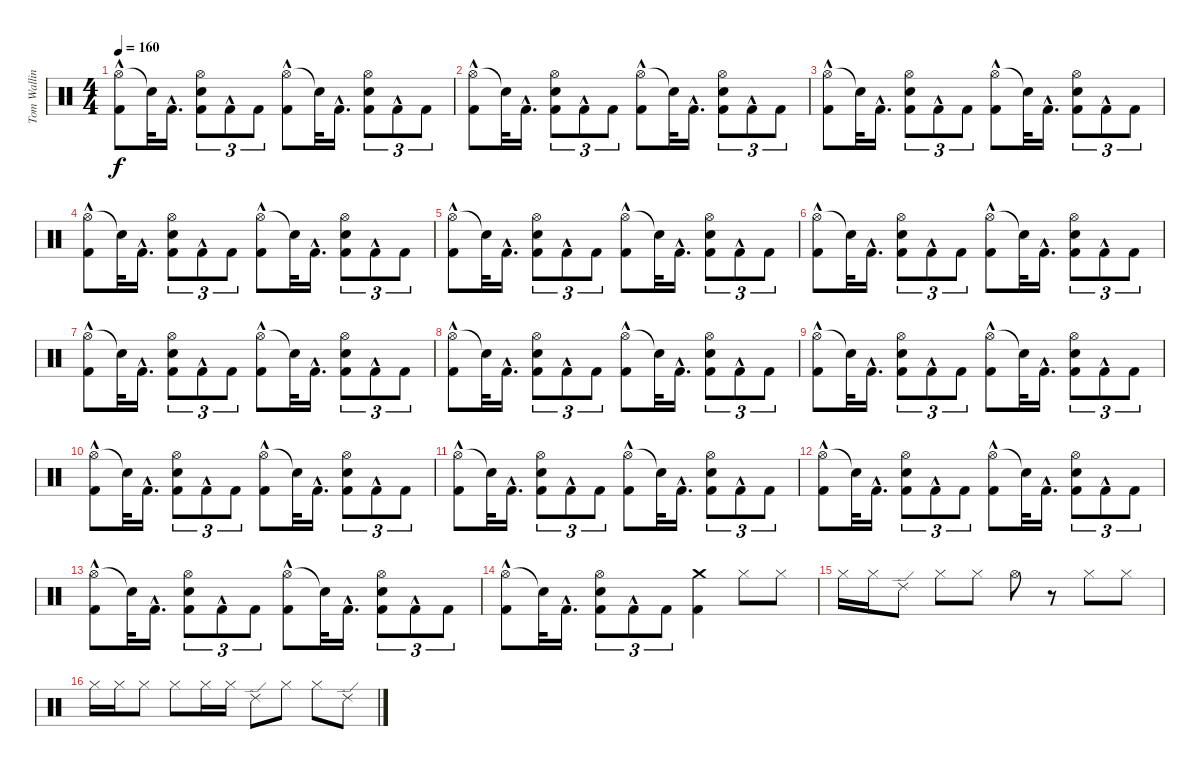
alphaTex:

\track ("Tom Walling (Drums)" "Tom Wallin") {instrument percussion}
\staff {score}
\articulation defaults
\ts (4 4)
\tempo 160
\clef neutral
\ks c
("Hi-Hat (open)" "Kick (hit) 2"{hac}).8{dy f} "Snare (hit)"{t}.32 "Kick (hit) 2"{hac}.16{d} ("Hi-Hat (open)" "Electric Snare (hit)" "Kick (hit) 2").8{tu (3 2)} "Kick (hit) 2"{hac}.8{tu (3 2)} "Kick (hit) 2".8{tu (3 2)} ("Hi-Hat (open)" "Kick (hit) 2"{hac}).8 "Snare (hit)"{t}.32 "Kick (hit) 2"{hac}.16{d} ("Hi-Hat (open)" "Electric Snare (hit)" "Kick (hit) 2").8{tu (3 2)} "Kick (hit) 2"{hac}.8{tu (3 2)} "Kick (hit) 2".8{tu (3 2)} |
("Hi-Hat (open)" "Kick (hit) 2"{hac}).8 "Snare (hit)"{t}.32 "Kick (hit) 2"{hac}.16{d} ("Hi-Hat (open)" "Electric Snare (hit)" "Kick (hit) 2").8{tu (3 2)} "Kick (hit) 2"{hac}.8{tu (3 2)} "Kick (hit) 2".8{tu (3 2)} ("Hi-Hat (open)" "Kick (hit) 2"{hac}).8 "Snare (hit)"{t}.32 "Kick (hit) 2"{hac}.16{d} ("Hi-Hat (open)" "Electric Snare (hit)" "Kick (hit) 2").8{tu (3 2)} "Kick (hit) 2"{hac}.8{tu (3 2)} "Kick (hit) 2".8{tu (3 2)} |
("Hi-Hat (open)" "Kick (hit) 2"{hac}).8 "Snare (hit)"{t}.32 "Kick (hit) 2"{hac}.16{d} ("Hi-Hat (open)" "Electric Snare (hit)" "Kick (hit) 2").8{tu (3 2)} "Kick (hit) 2"{hac}.8{tu (3 2)} "Kick (hit) 2".8{tu (3 2)} ("Hi-Hat (open)" "Kick (hit) 2"{hac}).8 "Snare (hit)"{t}.32 "Kick (hit) 2"{hac}.16{d} ("Hi-Hat (open)" "Electric Snare (hit)" "Kick (hit) 2").8{tu (3 2)} "Kick (hit) 2"{hac}.8{tu (3 2)} "Kick (hit) 2".8{tu (3 2)} |
("Hi-Hat (open)" "Kick (hit) 2"{hac}).8 "Snare (hit)"{t}.32 "Kick (hit) 2"{hac}.16{d} ("Hi-Hat (open)" "Electric Snare (hit)" "Kick (hit) 2").8{tu (3 2)} "Kick (hit) 2"{hac}.8{tu (3 2)} "Kick (hit) 2".8{tu (3 2)} ("Hi-Hat (open)" "Kick (hit) 2"{hac}).8 "Snare (hit)"{t}.32 "Kick (hit) 2"{hac}.16{d} ("Hi-Hat (open)" "Electric Snare (hit)" "Kick (hit) 2").8{tu (3 2)} "Kick (hit) 2"{hac}.8{tu (3 2)} "Kick (hit) 2".8{tu (3 2)} |
("Hi-Hat (open)" "Kick (hit) 2"{hac}).8 "Snare (hit)"{t}.32 "Kick (hit) 2"{hac}.16{d} ("Hi-Hat (open)" "Electric Snare (hit)" "Kick (hit) 2").8{tu (3 2)} "Kick (hit) 2"{hac}.8{tu (3 2)} "Kick (hit) 2".8{tu (3 2)} ("Hi-Hat (open)" "Kick (hit) 2"{hac}).8 "Snare (hit)"{t}.32 "Kick (hit) 2"{hac}.16{d} ("Hi-Hat (open)" "Electric Snare (hit)" "Kick (hit) 2").8{tu (3 2)} "Kick (hit) 2"{hac}.8{tu (3 2)} "Kick (hit) 2".8{tu (3 2)} |
("Hi-Hat (open)" "Kick (hit) 2"{hac}).8 "Snare (hit)"{t}.32 "Kick (hit) 2"{hac}.16{d} ("Hi-Hat (open)" "Electric Snare (hit)" "Kick (hit) 2").8{tu (3 2)} "Kick (hit) 2"{hac}.8{tu (3 2)} "Kick (hit) 2".8{tu (3 2)} ("Hi-Hat (open)" "Kick (hit) 2"{hac}).8 "Snare (hit)"{t}.32 "Kick (hit) 2"{hac}.16{d} ("Hi-Hat (open)" "Electric Snare (hit)" "Kick (hit) 2").8{tu (3 2)} "Kick (hit) 2"{hac}.8{tu (3 2)} "Kick (hit) 2".8{tu (3 2)} |
("Hi-Hat (open)" "Kick (hit) 2"{hac}).8 "Snare (hit)"{t}.32 "Kick (hit) 2"{hac}.16{d} ("Hi-Hat (open)" "Electric Snare (hit)" "Kick (hit) 2").8{tu (3 2)} "Kick (hit) 2"{hac}.8{tu (3 2)} "Kick (hit) 2".8{tu (3 2)} ("Hi-Hat (open)" "Kick (hit) 2"{hac}).8 "Snare (hit)"{t}.32 "Kick (hit) 2"{hac}.16{d} ("Hi-Hat (open)" "Electric Snare (hit)" "Kick (hit) 2").8{tu (3 2)} "Kick (hit) 2"{hac}.8{tu (3 2)} "Kick (hit) 2".8{tu (3 2)} |
("Hi-Hat (open)" "Kick (hit) 2"{hac}).8 "Snare (hit)"{t}.32 "Kick (hit) 2"{hac}.16{d} ("Hi-Hat (open)" "Electric Snare (hit)" "Kick (hit) 2").8{tu (3 2)} "Kick (hit) 2"{hac}.8{tu (3 2)} "Kick (hit) 2".8{tu (3 2)} ("Hi-Hat (open)" "Kick (hit) 2"{hac}).8 "Snare (hit)"{t}.32 "Kick (hit) 2"{hac}.16{d} ("Hi-Hat (open)" "Electric Snare (hit)" "Kick (hit) 2").8{tu (3 2)} "Kick (hit) 2"{hac}.8{tu (3 2)} "Kick (hit) 2".8{tu (3 2)} |
("Hi-Hat (open)" "Kick (hit) 2"{hac}).8 "Snare (hit)"{t}.32 "Kick (hit) 2"{hac}.16{d} ("Hi-Hat (open)" "Electric Snare (hit)" "Kick (hit) 2").8{tu (3 2)} "Kick (hit) 2"{hac}.8{tu (3 2)} "Kick (hit) 2".8{tu (3 2)} ("Hi-Hat (open)" "Kick (hit) 2"{hac}).8 "Snare (hit)"{t}.32 "Kick (hit) 2"{hac}.16{d} ("Hi-Hat (open)" "Electric Snare (hit)" "Kick (hit) 2").8{tu (3 2)} "Kick (hit) 2"{hac}.8{tu (3 2)} "Kick (hit) 2".8{tu (3 2)} |
("Hi-Hat (open)" "Kick (hit) 2"{hac}).8 "Snare (hit)"{t}.32 "Kick (hit) 2"{hac}.16{d} ("Hi-Hat (open)" "Electric Snare (hit)" "Kick (hit) 2").8{tu (3 2)} "Kick (hit) 2"{hac}.8{tu (3 2)} "Kick (hit) 2".8{tu (3 2)} ("Hi-Hat (open)" "Kick (hit) 2"{hac}).8 "Snare (hit)"{t}.32 "Kick (hit) 2"{hac}.16{d} ("Hi-Hat (open)" "Electric Snare (hit)" "Kick (hit) 2").8{tu (3 2)} "Kick (hit) 2"{hac}.8{tu (3 2)} "Kick (hit) 2".8{tu (3 2)} |
("Hi-Hat (open)" "Kick (hit) 2"{hac}).8 "Snare (hit)"{t}.32 "Kick (hit) 2"{hac}.16{d} ("Hi-Hat (open)" "Electric Snare (hit)" "Kick (hit) 2").8{tu (3 2)} "Kick (hit) 2"{hac}.8{tu (3 2)} "Kick (hit) 2".8{tu (3 2)} ("Hi-Hat (open)" "Kick (hit) 2"{hac}).8 "Snare (hit)"{t}.32 "Kick (hit) 2"{hac}.16{d} ("Hi-Hat (open)" "Electric Snare (hit)" "Kick (hit) 2").8{tu (3 2)} "Kick (hit) 2"{hac}.8{tu (3 2)} "Kick (hit) 2".8{tu (3 2)} |
("Hi-Hat (open)" "Kick (hit) 2"{hac}).8 "Snare (hit)"{t}.32 "Kick (hit) 2"{hac}.16{d} ("Hi-Hat (open)" "Electric Snare (hit)" "Kick (hit) 2").8{tu (3 2)} "Kick (hit) 2"{hac}.8{tu (3 2)} "Kick (hit) 2".8{tu (3 2)} ("Hi-Hat (open)" "Kick (hit) 2"{hac}).8 "Snare (hit)"{t}.32 "Kick (hit) 2"{hac}.16{d} ("Hi-Hat (open)" "Electric Snare (hit)" "Kick (hit) 2").8{tu (3 2)} "Kick (hit) 2"{hac}.8{tu (3 2)} "Kick (hit) 2".8{tu (3 2)} |
("Hi-Hat (open)" "Kick (hit) 2"{hac}).8 "Snare (hit)"{t}.32 "Kick (hit) 2"{hac}.16{d} ("Hi-Hat (open)" "Electric Snare (hit)" "Kick (hit) 2").8{tu (3 2)} "Kick (hit) 2"{hac}.8{tu (3 2)} "Kick (hit) 2".8{tu (3 2)} ("Hi-Hat (open)" "Kick (hit) 2"{hac}).8 "Snare (hit)"{t}.32 "Kick (hit) 2"{hac}.16{d} ("Hi-Hat (open)" "Electric Snare (hit)" "Kick (hit) 2").8{tu (3 2)} "Kick (hit) 2"{hac}.8{tu (3 2)} "Kick (hit) 2".8{tu (3 2)} |
("Hi-Hat (open)" "Kick (hit) 2"{hac}).8 "Snare (hit)"{t}.32 "Kick (hit) 2"{hac}.16{d} ("Hi-Hat (open)" "Electric Snare (hit)" "Kick (hit) 2").8{tu (3 2)} "Kick (hit) 2"{hac}.8{tu (3 2)} "Kick (hit) 2".8{tu (3 2)} ("Crash medium (hit)" "Kick (hit) 2").4 "Hi-Hat (closed)".8 "Hi-Hat (closed)".8 |
"Hi-Hat (closed)".16 "Hi-Hat (closed)".16 "Ride (edge) 2".8 "Hi-Hat (closed)".8 "Hi-Hat (closed)".8 "Hi-Hat (open)".8 r.8 "Hi-Hat (closed)".8 "Hi-Hat (closed)".8 |
"Hi-Hat (closed)".16 "Hi-Hat (closed)".16 "Hi-Hat (closed)".8 "Hi-Hat (closed)".8 "Hi-Hat (closed)".16 "Hi-Hat (closed)".16 "Ride (edge) 2".8 "Hi-Hat (closed)".8 "Hi-Hat (closed)".8 "Ride (edge) 2".8
